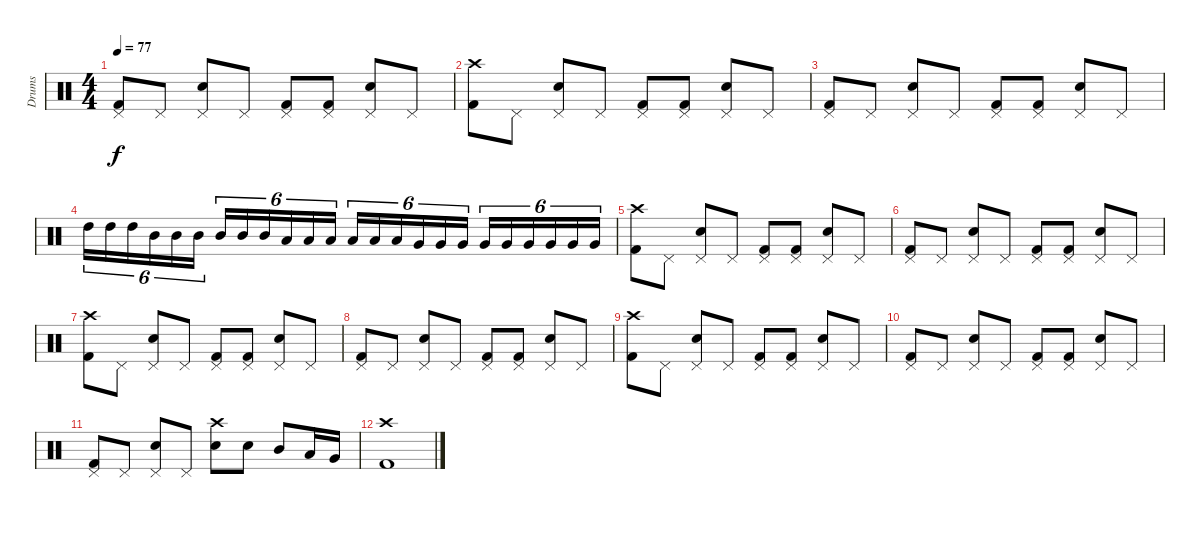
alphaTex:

\track ("Drums" "Drums") {instrument percussion}
\staff {score}
\articulation defaults
\ts (4 4)
\tempo 77
\clef neutral
\ks c
("Pedal Hi-Hat (hit)" "Kick (hit) 2").8{dy f} "Pedal Hi-Hat (hit)".8 ("Pedal Hi-Hat (hit)" "Electric Snare (hit)").8 "Pedal Hi-Hat (hit)".8 ("Pedal Hi-Hat (hit)" "Kick (hit) 2").8 ("Pedal Hi-Hat (hit)" "Kick (hit) 2").8 ("Pedal Hi-Hat (hit)" "Electric Snare (hit)").8 "Pedal Hi-Hat (hit)".8 |
("Crash high (hit)" "Kick (hit) 2").8 "Pedal Hi-Hat (hit)".8 ("Pedal Hi-Hat (hit)" "Electric Snare (hit)").8 "Pedal Hi-Hat (hit)".8 ("Pedal Hi-Hat (hit)" "Kick (hit) 2").8 ("Pedal Hi-Hat (hit)" "Kick (hit) 2").8 ("Pedal Hi-Hat (hit)" "Electric Snare (hit)").8 "Pedal Hi-Hat (hit)".8 |
("Pedal Hi-Hat (hit)" "Kick (hit) 2").8 "Pedal Hi-Hat (hit)".8 ("Pedal Hi-Hat (hit)" "Electric Snare (hit)").8 "Pedal Hi-Hat (hit)".8 ("Pedal Hi-Hat (hit)" "Kick (hit) 2").8 ("Pedal Hi-Hat (hit)" "Kick (hit) 2").8 ("Pedal Hi-Hat (hit)" "Electric Snare (hit)").8 "Pedal Hi-Hat (hit)".8 |
"High Tom (hit)".16{tu (6 4)} "High Tom (hit)".16{tu (6 4)} "High Tom (hit)".16{tu (6 4)} "Mid Tom (hit)".16{tu (6 4)} "Mid Tom (hit)".16{tu (6 4)} "Mid Tom (hit)".16{tu (6 4)} "Mid Tom (hit)".16{tu (6 4)} "Mid Tom (hit)".16{tu (6 4)} "Mid Tom (hit)".16{tu (6 4)} "Low Tom (hit)".16{tu (6 4)} "Low Tom (hit)".16{tu (6 4)} "Low Tom (hit)".16{tu (6 4)} "Low Tom (hit)".16{tu (6 4)} "Low Tom (hit)".16{tu (6 4)} "Low Tom (hit)".16{tu (6 4)} "Very Low Tom (hit)".16{tu (6 4)} "Very Low Tom (hit)".16{tu (6 4)} "Very Low Tom (hit)".16{tu (6 4)} "Very Low Tom (hit)".16{tu (6 4)} "Very Low Tom (hit)".16{tu (6 4)} "Very Low Tom (hit)".16{tu (6 4)} "Very Low Tom (hit)".16{tu (6 4)} "Very Low Tom (hit)".16{tu (6 4)} "Very Low Tom (hit)".16{tu (6 4)} |
("Crash high (hit)" "Kick (hit) 2").8 "Pedal Hi-Hat (hit)".8 ("Pedal Hi-Hat (hit)" "Electric Snare (hit)").8 "Pedal Hi-Hat (hit)".8 ("Pedal Hi-Hat (hit)" "Kick (hit) 2").8 ("Pedal Hi-Hat (hit)" "Kick (hit) 2").8 ("Pedal Hi-Hat (hit)" "Electric Snare (hit)").8 "Pedal Hi-Hat (hit)".8 |
("Pedal Hi-Hat (hit)" "Kick (hit) 2").8 "Pedal Hi-Hat (hit)".8 ("Pedal Hi-Hat (hit)" "Electric Snare (hit)").8 "Pedal Hi-Hat (hit)".8 ("Pedal Hi-Hat (hit)" "Kick (hit) 2").8 ("Pedal Hi-Hat (hit)" "Kick (hit) 2").8 ("Pedal Hi-Hat (hit)" "Electric Snare (hit)").8 "Pedal Hi-Hat (hit)".8 |
("Crash high (hit)" "Kick (hit) 2").8 "Pedal Hi-Hat (hit)".8 ("Pedal Hi-Hat (hit)" "Electric Snare (hit)").8 "Pedal Hi-Hat (hit)".8 ("Pedal Hi-Hat (hit)" "Kick (hit) 2").8 ("Pedal Hi-Hat (hit)" "Kick (hit) 2").8 ("Pedal Hi-Hat (hit)" "Electric Snare (hit)").8 "Pedal Hi-Hat (hit)".8 |
("Pedal Hi-Hat (hit)" "Kick (hit) 2").8 "Pedal Hi-Hat (hit)".8 ("Pedal Hi-Hat (hit)" "Electric Snare (hit)").8 "Pedal Hi-Hat (hit)".8 ("Pedal Hi-Hat (hit)" "Kick (hit) 2").8 ("Pedal Hi-Hat (hit)" "Kick (hit) 2").8 ("Pedal Hi-Hat (hit)" "Electric Snare (hit)").8 "Pedal Hi-Hat (hit)".8 |
("Crash high (hit)" "Kick (hit) 2").8 "Pedal Hi-Hat (hit)".8 ("Pedal Hi-Hat (hit)" "Electric Snare (hit)").8 "Pedal Hi-Hat (hit)".8 ("Pedal Hi-Hat (hit)" "Kick (hit) 2").8 ("Pedal Hi-Hat (hit)" "Kick (hit) 2").8 ("Pedal Hi-Hat (hit)" "Electric Snare (hit)").8 "Pedal Hi-Hat (hit)".8 |
("Pedal Hi-Hat (hit)" "Kick (hit) 2").8 "Pedal Hi-Hat (hit)".8 ("Pedal Hi-Hat (hit)" "Electric Snare (hit)").8 "Pedal Hi-Hat (hit)".8 ("Pedal Hi-Hat (hit)" "Kick (hit) 2").8 ("Pedal Hi-Hat (hit)" "Kick (hit) 2").8 ("Pedal Hi-Hat (hit)" "Electric Snare (hit)").8 "Pedal Hi-Hat (hit)".8 |
("Pedal Hi-Hat (hit)" "Kick (hit) 2").8 "Pedal Hi-Hat (hit)".8 ("Pedal Hi-Hat (hit)" "Electric Snare (hit)").8 "Pedal Hi-Hat (hit)".8 ("Crash high (hit)" "Electric Snare (hit)").8 "Electric Snare (hit)".8 "Mid Tom (hit)".8 "Low Tom (hit)".16 "Very Low Tom (hit)".16 |
("Crash high (hit)" "Kick (hit) 2").1
